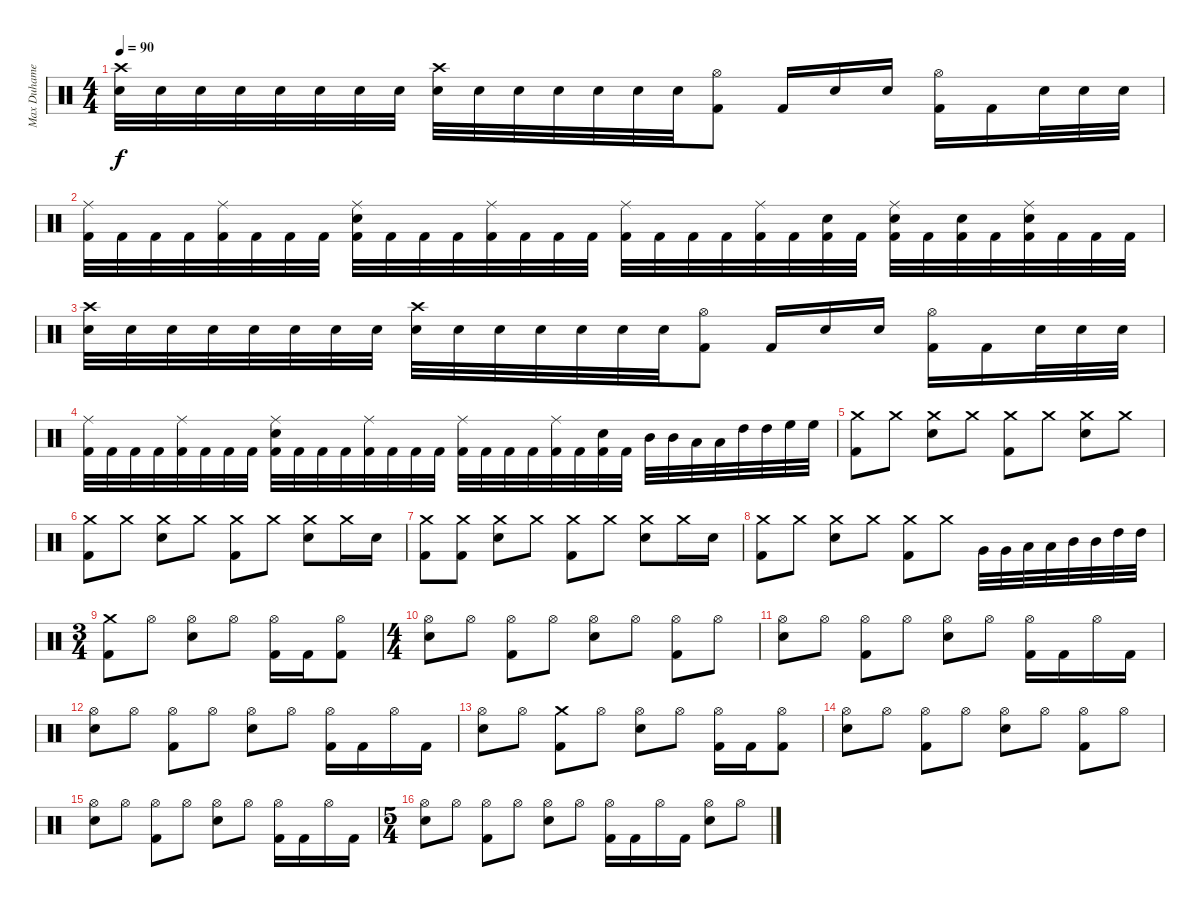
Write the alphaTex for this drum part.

\track ("Max Duhamel (Drums)" "Max Duhame") {instrument percussion}
\staff {score}
\articulation defaults
\ts (4 4)
\tempo 90
\clef neutral
\ks c
("Crash high (hit)" "Snare (hit) 2").32{dy f} "Snare (hit) 2".32 "Snare (hit) 2".32 "Snare (hit) 2".32 "Snare (hit) 2".32 "Snare (hit) 2".32 "Snare (hit) 2".32 "Snare (hit) 2".32 ("Crash high (hit)" "Snare (hit) 2").32 "Snare (hit) 2".32 "Snare (hit) 2".32 "Snare (hit) 2".32 "Snare (hit) 2".32 "Snare (hit) 2".32 "Snare (hit) 2".32 ("Hi-Hat (open)" "Kick (hit) 2").8 "Kick (hit) 2".16 "Snare (hit) 2".16 "Snare (hit) 2".16 ("Hi-Hat (open)" "Kick (hit) 2").16 "Kick (hit) 2".16 "Snare (hit) 2".32 "Snare (hit) 2".32 "Snare (hit) 2".32 |
("Ride (middle)" "Kick (hit) 2").32 "Kick (hit) 2".32 "Kick (hit) 2".32 "Kick (hit) 2".32 ("Ride (middle)" "Kick (hit) 2").32 "Kick (hit) 2".32 "Kick (hit) 2".32 "Kick (hit) 2".32 ("Ride (middle)" "Snare (hit) 2" "Kick (hit) 2").32 "Kick (hit) 2".32 "Kick (hit) 2".32 "Kick (hit) 2".32 ("Ride (middle)" "Kick (hit) 2").32 "Kick (hit) 2".32 "Kick (hit) 2".32 "Kick (hit) 2".32 ("Ride (middle)" "Kick (hit) 2").32 "Kick (hit) 2".32 "Kick (hit) 2".32 "Kick (hit) 2".32 ("Ride (middle)" "Kick (hit) 2").32 "Kick (hit) 2".32 ("Snare (hit) 2" "Kick (hit) 2").32 "Kick (hit) 2".32 ("Ride (middle)" "Snare (hit) 2" "Kick (hit) 2").32 "Kick (hit) 2".32 ("Snare (hit) 2" "Kick (hit) 2").32 "Kick (hit) 2".32 ("Ride (middle)" "Snare (hit) 2" "Kick (hit) 2").32 "Kick (hit) 2".32 "Kick (hit) 2".32 "Kick (hit) 2".32 |
("Crash high (hit)" "Snare (hit) 2").32 "Snare (hit) 2".32 "Snare (hit) 2".32 "Snare (hit) 2".32 "Snare (hit) 2".32 "Snare (hit) 2".32 "Snare (hit) 2".32 "Snare (hit) 2".32 ("Crash high (hit)" "Snare (hit) 2").32 "Snare (hit) 2".32 "Snare (hit) 2".32 "Snare (hit) 2".32 "Snare (hit) 2".32 "Snare (hit) 2".32 "Snare (hit) 2".32 ("Hi-Hat (open)" "Kick (hit) 2").8 "Kick (hit) 2".16 "Snare (hit) 2".16 "Snare (hit) 2".16 ("Hi-Hat (open)" "Kick (hit) 2").16 "Kick (hit) 2".16 "Snare (hit) 2".32 "Snare (hit) 2".32 "Snare (hit) 2".32 |
("Ride (middle)" "Kick (hit) 2").32 "Kick (hit) 2".32 "Kick (hit) 2".32 "Kick (hit) 2".32 ("Ride (middle)" "Kick (hit) 2").32 "Kick (hit) 2".32 "Kick (hit) 2".32 "Kick (hit) 2".32 ("Ride (middle)" "Snare (hit) 2" "Kick (hit) 2").32 "Kick (hit) 2".32 "Kick (hit) 2".32 "Kick (hit) 2".32 ("Ride (middle)" "Kick (hit) 2").32 "Kick (hit) 2".32 "Kick (hit) 2".32 "Kick (hit) 2".32 ("Ride (middle)" "Kick (hit) 2").32 "Kick (hit) 2".32 "Kick (hit) 2".32 "Kick (hit) 2".32 ("Ride (middle)" "Kick (hit) 2").32 "Kick (hit) 2".32 ("Snare (hit) 2" "Kick (hit) 2").32 "Kick (hit) 2".32 "Mid Tom (hit)".32 "Mid Tom (hit)".32 "Low Tom (hit)".32 "Low Tom (hit)".32 "High Tom (hit)".32 "High Tom (hit)".32 "High Floor Tom (hit)".32 "High Floor Tom (hit)".32 |
("Crash medium (hit)" "Kick (hit) 2").8 "Crash medium (hit)".8 ("Crash medium (hit)" "Snare (hit) 2").8 "Crash medium (hit)".8 ("Crash medium (hit)" "Kick (hit) 2").8 "Crash medium (hit)".8 ("Crash medium (hit)" "Snare (hit) 2").8 "Crash medium (hit)".8 |
("Crash medium (hit)" "Kick (hit) 2").8 "Crash medium (hit)".8 ("Crash medium (hit)" "Snare (hit) 2").8 "Crash medium (hit)".8 ("Crash medium (hit)" "Kick (hit) 2").8 "Crash medium (hit)".8 ("Crash medium (hit)" "Snare (hit) 2").8 "Crash medium (hit)".16 "Snare (hit) 2".16 |
("Crash medium (hit)" "Kick (hit) 2").8 ("Crash medium (hit)" "Kick (hit) 2").8 ("Crash medium (hit)" "Snare (hit) 2").8 "Crash medium (hit)".8 ("Crash medium (hit)" "Kick (hit) 2").8 "Crash medium (hit)".8 ("Crash medium (hit)" "Snare (hit) 2").8 "Crash medium (hit)".16 "Snare (hit) 2".16 |
("Crash medium (hit)" "Kick (hit) 2").8 "Crash medium (hit)".8 ("Crash medium (hit)" "Snare (hit) 2").8 "Crash medium (hit)".8 ("Crash medium (hit)" "Kick (hit) 2").8 "Crash medium (hit)".8 "Very Low Tom (hit)".32 "Very Low Tom (hit)".32 "Low Tom (hit)".32 "Low Tom (hit)".32 "Mid Tom (hit)".32 "Mid Tom (hit)".32 "High Tom (hit)".32 "High Tom (hit)".32 |
\ts (3 4)
("Crash medium (hit)" "Kick (hit) 2").8 "Hi-Hat (open)".8 ("Hi-Hat (open)" "Snare (hit) 2").8 "Hi-Hat (open)".8 ("Hi-Hat (open)" "Kick (hit) 2").16 "Kick (hit) 2".16 ("Hi-Hat (open)" "Kick (hit) 2").8 |
\ts (4 4)
("Hi-Hat (open)" "Snare (hit) 2").8 "Hi-Hat (open)".8 ("Hi-Hat (open)" "Kick (hit) 2").8 "Hi-Hat (open)".8 ("Hi-Hat (open)" "Snare (hit) 2").8 "Hi-Hat (open)".8 ("Hi-Hat (open)" "Kick (hit) 2").8 "Hi-Hat (open)".8 |
("Hi-Hat (open)" "Snare (hit) 2").8 "Hi-Hat (open)".8 ("Hi-Hat (open)" "Kick (hit) 2").8 "Hi-Hat (open)".8 ("Hi-Hat (open)" "Snare (hit) 2").8 "Hi-Hat (open)".8 ("Hi-Hat (open)" "Kick (hit) 2").16 "Kick (hit) 2".16 "Hi-Hat (open)".16 "Kick (hit) 2".16 |
("Hi-Hat (open)" "Snare (hit) 2").8 "Hi-Hat (open)".8 ("Hi-Hat (open)" "Kick (hit) 2").8 "Hi-Hat (open)".8 ("Hi-Hat (open)" "Snare (hit) 2").8 "Hi-Hat (open)".8 ("Hi-Hat (open)" "Kick (hit) 2").16 "Kick (hit) 2".16 "Hi-Hat (open)".16 "Kick (hit) 2".16 |
("Hi-Hat (open)" "Snare (hit) 2").8 "Hi-Hat (open)".8 ("Crash medium (hit)" "Kick (hit) 2").8 "Hi-Hat (open)".8 ("Hi-Hat (open)" "Snare (hit) 2").8 "Hi-Hat (open)".8 ("Hi-Hat (open)" "Kick (hit) 2").16 "Kick (hit) 2".16 ("Hi-Hat (open)" "Kick (hit) 2").8 |
("Hi-Hat (open)" "Snare (hit) 2").8 "Hi-Hat (open)".8 ("Hi-Hat (open)" "Kick (hit) 2").8 "Hi-Hat (open)".8 ("Hi-Hat (open)" "Snare (hit) 2").8 "Hi-Hat (open)".8 ("Hi-Hat (open)" "Kick (hit) 2").8 "Hi-Hat (open)".8 |
("Hi-Hat (open)" "Snare (hit) 2").8 "Hi-Hat (open)".8 ("Hi-Hat (open)" "Kick (hit) 2").8 "Hi-Hat (open)".8 ("Hi-Hat (open)" "Snare (hit) 2").8 "Hi-Hat (open)".8 ("Hi-Hat (open)" "Kick (hit) 2").16 "Kick (hit) 2".16 "Hi-Hat (open)".16 "Kick (hit) 2".16 |
\ts (5 4)
("Hi-Hat (open)" "Snare (hit) 2").8 "Hi-Hat (open)".8 ("Hi-Hat (open)" "Kick (hit) 2").8 "Hi-Hat (open)".8 ("Hi-Hat (open)" "Snare (hit) 2").8 "Hi-Hat (open)".8 ("Hi-Hat (open)" "Kick (hit) 2").16 "Kick (hit) 2".16 "Hi-Hat (open)".16 "Kick (hit) 2".16 ("Hi-Hat (open)" "Snare (hit) 2").8 "Hi-Hat (open)".8
